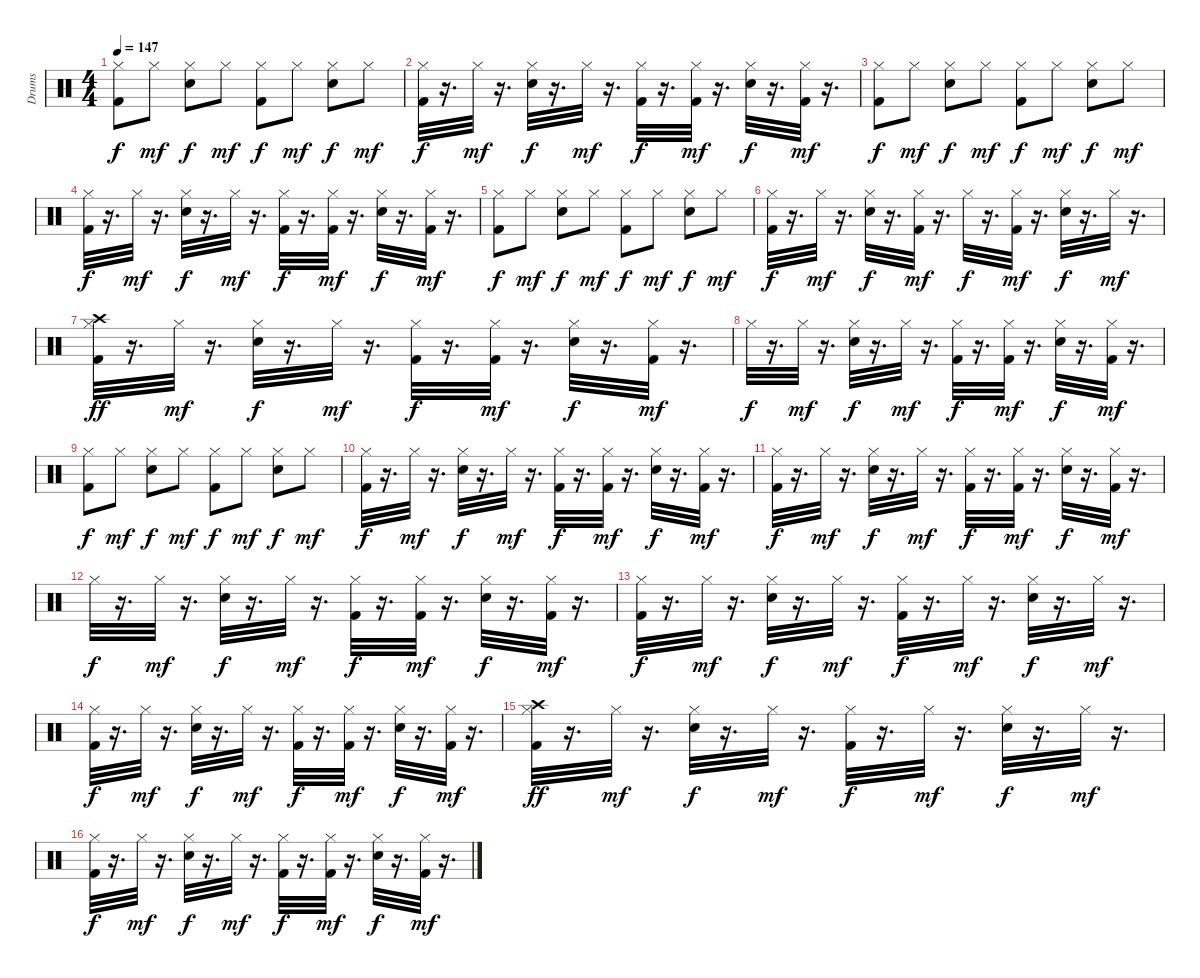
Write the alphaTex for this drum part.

\track ("Drums" "Drums") {instrument percussion}
\staff {score}
\articulation defaults
\ts (4 4)
\tempo 147
\clef neutral
\ks c
("Hi-Hat (closed)" "Kick (hit) 2").8{dy f} "Hi-Hat (closed)".8{dy mf} ("Hi-Hat (closed)" "Snare (hit) 2").8{dy f} "Hi-Hat (closed)".8{dy mf} ("Hi-Hat (closed)" "Kick (hit) 2").8{dy f} "Hi-Hat (closed)".8{dy mf} ("Hi-Hat (closed)" "Snare (hit) 2").8{dy f} "Hi-Hat (closed)".8{dy mf} |
("Kick (hit) 2" "Hi-Hat (closed)").32{dy f} r.16{d} "Hi-Hat (closed)".32{dy mf} r.16{d} ("Snare (hit) 2" "Hi-Hat (closed)").32{dy f} r.16{d} "Hi-Hat (closed)".32{dy mf} r.16{d} ("Kick (hit) 2" "Hi-Hat (closed)").32{dy f} r.16{d} ("Kick (hit) 2" "Hi-Hat (closed)").32{dy mf} r.16{d} ("Snare (hit) 2" "Hi-Hat (closed)").32{dy f} r.16{d} ("Kick (hit) 2" "Hi-Hat (closed)").32{dy mf} r.16{d} |
("Hi-Hat (closed)" "Kick (hit) 2").8{dy f} "Hi-Hat (closed)".8{dy mf} ("Hi-Hat (closed)" "Snare (hit) 2").8{dy f} "Hi-Hat (closed)".8{dy mf} ("Hi-Hat (closed)" "Kick (hit) 2").8{dy f} "Hi-Hat (closed)".8{dy mf} ("Hi-Hat (closed)" "Snare (hit) 2").8{dy f} "Hi-Hat (closed)".8{dy mf} |
("Kick (hit) 2" "Hi-Hat (closed)").32{dy f} r.16{d} "Hi-Hat (closed)".32{dy mf} r.16{d} ("Snare (hit) 2" "Hi-Hat (closed)").32{dy f} r.16{d} "Hi-Hat (closed)".32{dy mf} r.16{d} ("Kick (hit) 2" "Hi-Hat (closed)").32{dy f} r.16{d} ("Kick (hit) 2" "Hi-Hat (closed)").32{dy mf} r.16{d} ("Snare (hit) 2" "Hi-Hat (closed)").32{dy f} r.16{d} ("Kick (hit) 2" "Hi-Hat (closed)").32{dy mf} r.16{d} |
("Hi-Hat (closed)" "Kick (hit) 2").8{dy f} "Hi-Hat (closed)".8{dy mf} ("Hi-Hat (closed)" "Snare (hit) 2").8{dy f} "Hi-Hat (closed)".8{dy mf} ("Hi-Hat (closed)" "Kick (hit) 2").8{dy f} "Hi-Hat (closed)".8{dy mf} ("Hi-Hat (closed)" "Snare (hit) 2").8{dy f} "Hi-Hat (closed)".8{dy mf} |
("Kick (hit) 2" "Hi-Hat (closed)").32{dy f} r.16{d} "Hi-Hat (closed)".32{dy mf} r.16{d} ("Snare (hit) 2" "Hi-Hat (closed)").32{dy f} r.16{d} ("Kick (hit) 2" "Hi-Hat (closed)").32{dy mf} r.16{d} "Hi-Hat (closed)".32{dy f} r.16{d} ("Kick (hit) 2" "Hi-Hat (closed)").32{dy mf} r.16{d} ("Snare (hit) 2" "Hi-Hat (closed)").32{dy f} r.16{d} "Hi-Hat (closed)".32{dy mf} r.16{d} |
("Kick (hit) 2" "Hi-Hat (closed)" "Crash high (hit)").32{dy ff} r.16{d} "Hi-Hat (closed)".32{dy mf} r.16{d} ("Snare (hit) 2" "Hi-Hat (closed)").32{dy f} r.16{d} "Hi-Hat (closed)".32{dy mf} r.16{d} ("Kick (hit) 2" "Hi-Hat (closed)").32{dy f} r.16{d} ("Kick (hit) 2" "Hi-Hat (closed)").32{dy mf} r.16{d} ("Snare (hit) 2" "Hi-Hat (closed)").32{dy f} r.16{d} ("Kick (hit) 2" "Hi-Hat (closed)").32{dy mf} r.16{d} |
"Hi-Hat (closed)".32{dy f} r.16{d} "Hi-Hat (closed)".32{dy mf} r.16{d} ("Snare (hit) 2" "Hi-Hat (closed)").32{dy f} r.16{d} "Hi-Hat (closed)".32{dy mf} r.16{d} ("Kick (hit) 2" "Hi-Hat (closed)").32{dy f} r.16{d} ("Kick (hit) 2" "Hi-Hat (closed)").32{dy mf} r.16{d} ("Snare (hit) 2" "Hi-Hat (closed)").32{dy f} r.16{d} ("Kick (hit) 2" "Hi-Hat (closed)").32{dy mf} r.16{d} |
("Hi-Hat (closed)" "Kick (hit) 2").8{dy f} "Hi-Hat (closed)".8{dy mf} ("Hi-Hat (closed)" "Snare (hit) 2").8{dy f} "Hi-Hat (closed)".8{dy mf} ("Hi-Hat (closed)" "Kick (hit) 2").8{dy f} "Hi-Hat (closed)".8{dy mf} ("Hi-Hat (closed)" "Snare (hit) 2").8{dy f} "Hi-Hat (closed)".8{dy mf} |
("Kick (hit) 2" "Hi-Hat (closed)").32{dy f} r.16{d} "Hi-Hat (closed)".32{dy mf} r.16{d} ("Snare (hit) 2" "Hi-Hat (closed)").32{dy f} r.16{d} "Hi-Hat (closed)".32{dy mf} r.16{d} ("Kick (hit) 2" "Hi-Hat (closed)").32{dy f} r.16{d} ("Kick (hit) 2" "Hi-Hat (closed)").32{dy mf} r.16{d} ("Snare (hit) 2" "Hi-Hat (closed)").32{dy f} r.16{d} ("Kick (hit) 2" "Hi-Hat (closed)").32{dy mf} r.16{d} |
("Kick (hit) 2" "Hi-Hat (closed)").32{dy f} r.16{d} "Hi-Hat (closed)".32{dy mf} r.16{d} ("Snare (hit) 2" "Hi-Hat (closed)").32{dy f} r.16{d} "Hi-Hat (closed)".32{dy mf} r.16{d} ("Kick (hit) 2" "Hi-Hat (closed)").32{dy f} r.16{d} ("Kick (hit) 2" "Hi-Hat (closed)").32{dy mf} r.16{d} ("Snare (hit) 2" "Hi-Hat (closed)").32{dy f} r.16{d} ("Kick (hit) 2" "Hi-Hat (closed)").32{dy mf} r.16{d} |
"Hi-Hat (closed)".32{dy f} r.16{d} "Hi-Hat (closed)".32{dy mf} r.16{d} ("Snare (hit) 2" "Hi-Hat (closed)").32{dy f} r.16{d} "Hi-Hat (closed)".32{dy mf} r.16{d} ("Kick (hit) 2" "Hi-Hat (closed)").32{dy f} r.16{d} ("Kick (hit) 2" "Hi-Hat (closed)").32{dy mf} r.16{d} ("Snare (hit) 2" "Hi-Hat (closed)").32{dy f} r.16{d} ("Kick (hit) 2" "Hi-Hat (closed)").32{dy mf} r.16{d} |
("Kick (hit) 2" "Hi-Hat (closed)").32{dy f} r.16{d} "Hi-Hat (closed)".32{dy mf} r.16{d} ("Snare (hit) 2" "Hi-Hat (closed)").32{dy f} r.16{d} "Hi-Hat (closed)".32{dy mf} r.16{d} ("Kick (hit) 2" "Hi-Hat (closed)").32{dy f} r.16{d} "Hi-Hat (closed)".32{dy mf} r.16{d} ("Snare (hit) 2" "Hi-Hat (closed)").32{dy f} r.16{d} "Hi-Hat (closed)".32{dy mf} r.16{d} |
("Kick (hit) 2" "Hi-Hat (closed)").32{dy f} r.16{d} "Hi-Hat (closed)".32{dy mf} r.16{d} ("Snare (hit) 2" "Hi-Hat (closed)").32{dy f} r.16{d} "Hi-Hat (closed)".32{dy mf} r.16{d} ("Kick (hit) 2" "Hi-Hat (closed)").32{dy f} r.16{d} ("Kick (hit) 2" "Hi-Hat (closed)").32{dy mf} r.16{d} ("Snare (hit) 2" "Hi-Hat (closed)").32{dy f} r.16{d} ("Kick (hit) 2" "Hi-Hat (closed)").32{dy mf} r.16{d} |
("Kick (hit) 2" "Hi-Hat (closed)" "Crash high (hit)").32{dy ff} r.16{d} "Hi-Hat (closed)".32{dy mf} r.16{d} ("Snare (hit) 2" "Hi-Hat (closed)").32{dy f} r.16{d} "Hi-Hat (closed)".32{dy mf} r.16{d} ("Kick (hit) 2" "Hi-Hat (closed)").32{dy f} r.16{d} "Hi-Hat (closed)".32{dy mf} r.16{d} ("Snare (hit) 2" "Hi-Hat (closed)").32{dy f} r.16{d} "Hi-Hat (closed)".32{dy mf} r.16{d} |
("Kick (hit) 2" "Hi-Hat (closed)").32{dy f} r.16{d} "Hi-Hat (closed)".32{dy mf} r.16{d} ("Snare (hit) 2" "Hi-Hat (closed)").32{dy f} r.16{d} "Hi-Hat (closed)".32{dy mf} r.16{d} ("Kick (hit) 2" "Hi-Hat (closed)").32{dy f} r.16{d} ("Kick (hit) 2" "Hi-Hat (closed)").32{dy mf} r.16{d} ("Snare (hit) 2" "Hi-Hat (closed)").32{dy f} r.16{d} ("Kick (hit) 2" "Hi-Hat (closed)").32{dy mf} r.16{d}
